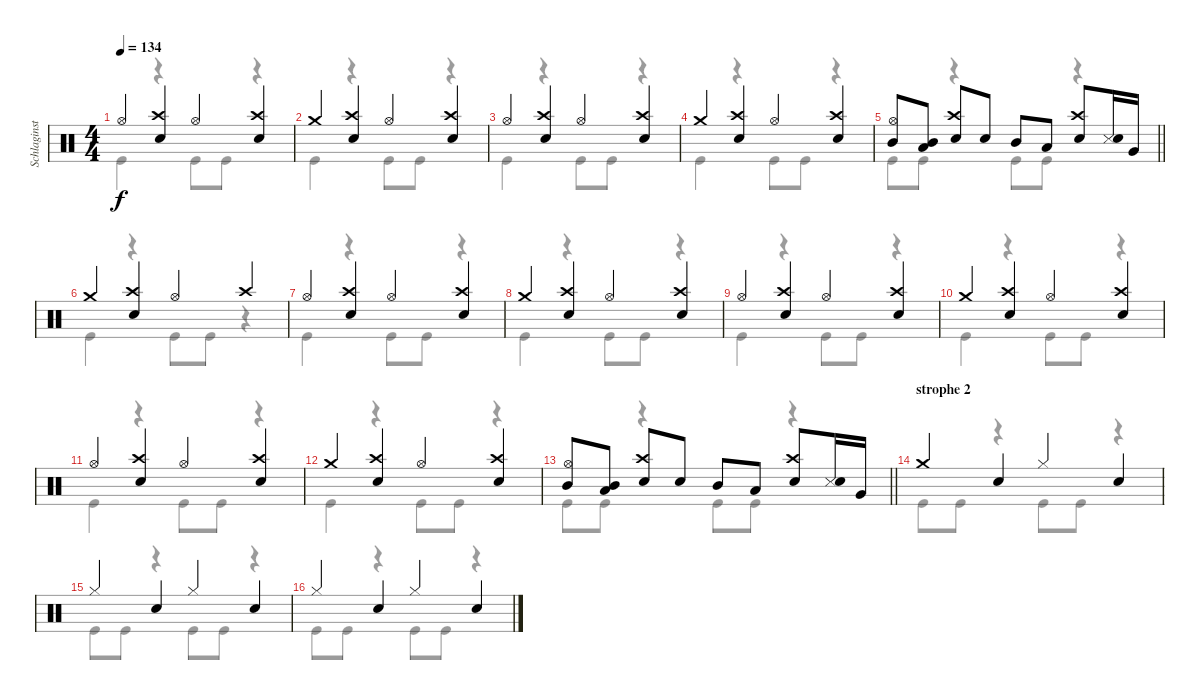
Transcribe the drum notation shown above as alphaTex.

\track ("Schlaginstrumente - Auswahl" "Schlaginst") {instrument percussion}
\staff {score}
\articulation defaults
\voice
\ts (4 4)
\tempo 134
\clef neutral
\ks c "Hi-Hat (open)".4{dy f}
("Crash high (hit)" "Snare (hit) 2").4 "Hi-Hat (open)".4 ("Snare (hit) 2" "Crash high (hit)").4 |
"Crash medium (hit)".4 ("Crash high (hit)" "Snare (hit) 2").4 "Hi-Hat (open)".4 ("Crash high (hit)" "Snare (hit) 2").4 |
"Hi-Hat (open)".4 ("Crash high (hit)" "Snare (hit) 2").4 "Hi-Hat (open)".4 ("Snare (hit) 2" "Crash high (hit)").4 |
"Crash medium (hit)".4 ("Crash high (hit)" "Snare (hit) 2").4 "Hi-Hat (open)".4 ("Crash high (hit)" "Snare (hit) 2").4 |
\barLineRight lightlight
("Mid Tom (hit)" "Hi-Hat (open)").8 ("Low Tom (hit)" "Mid Tom (hit)").8 ("Snare (hit) 2" "Crash high (hit)").8 "Snare (hit) 2".8 "Mid Tom (hit)".8 "Low Tom (hit)".8 ("Snare (hit) 2" "Crash high (hit)").8 ("Snare (side stick) 3" "Snare (hit) 2").16 "Very Low Tom (hit)".16 |
"Crash medium (hit)".4 ("Crash high (hit)" "Snare (hit) 2").4 "Hi-Hat (open)".4 "Crash high (hit)".4 |
"Hi-Hat (open)".4 ("Crash high (hit)" "Snare (hit) 2").4 "Hi-Hat (open)".4 ("Snare (hit) 2" "Crash high (hit)").4 |
"Crash medium (hit)".4 ("Crash high (hit)" "Snare (hit) 2").4 "Hi-Hat (open)".4 ("Crash high (hit)" "Snare (hit) 2").4 |
"Hi-Hat (open)".4 ("Crash high (hit)" "Snare (hit) 2").4 "Hi-Hat (open)".4 ("Snare (hit) 2" "Crash high (hit)").4 |
"Crash medium (hit)".4 ("Crash high (hit)" "Snare (hit) 2").4 "Hi-Hat (open)".4 ("Crash high (hit)" "Snare (hit) 2").4 |
"Hi-Hat (open)".4 ("Crash high (hit)" "Snare (hit) 2").4 "Hi-Hat (open)".4 ("Snare (hit) 2" "Crash high (hit)").4 |
"Crash medium (hit)".4 ("Crash high (hit)" "Snare (hit) 2").4 "Hi-Hat (open)".4 ("Crash high (hit)" "Snare (hit) 2").4 |
\barLineRight lightlight
("Mid Tom (hit)" "Hi-Hat (open)").8 ("Low Tom (hit)" "Mid Tom (hit)").8 ("Snare (hit) 2" "Crash high (hit)").8 "Snare (hit) 2".8 "Mid Tom (hit)".8 "Low Tom (hit)".8 ("Snare (hit) 2" "Crash high (hit)").8 ("Snare (side stick) 3" "Snare (hit) 2").16 "Very Low Tom (hit)".16 |
\section ("" "strophe 2")
"Crash medium (hit)".4 "Snare (hit) 2".4 "Hi-Hat (closed)".4 "Snare (hit) 2".4 |
"Hi-Hat (closed)".4 "Snare (hit) 2".4 "Hi-Hat (closed)".4 "Snare (hit) 2".4 |
"Hi-Hat (closed)".4 "Snare (hit) 2".4 "Hi-Hat (closed)".4 "Snare (hit) 2".4
\voice
\clef neutral
\ottava regular
\simile none
\ks c "Kick (hit)".4{dy f}
r.4 "Kick (hit)".8 "Kick (hit)".8 r.4 |
"Kick (hit)".4 r.4 "Kick (hit)".8 "Kick (hit)".8 r.4 |
"Kick (hit)".4 r.4 "Kick (hit)".8 "Kick (hit)".8 r.4 |
"Kick (hit)".4 r.4 "Kick (hit)".8 "Kick (hit)".8 r.4 |
\barLineRight lightlight "Kick (hit)".8 "Kick (hit)".8
r.4 "Kick (hit)".8 "Kick (hit)".8 r.4 |
"Kick (hit)".4 r.4 "Kick (hit)".8 "Kick (hit)".8 r.4 |
"Kick (hit)".4 r.4 "Kick (hit)".8 "Kick (hit)".8 r.4 |
"Kick (hit)".4 r.4 "Kick (hit)".8 "Kick (hit)".8 r.4 |
"Kick (hit)".4 r.4 "Kick (hit)".8 "Kick (hit)".8 r.4 |
"Kick (hit)".4 r.4 "Kick (hit)".8 "Kick (hit)".8 r.4 |
"Kick (hit)".4 r.4 "Kick (hit)".8 "Kick (hit)".8 r.4 |
"Kick (hit)".4 r.4 "Kick (hit)".8 "Kick (hit)".8 r.4 |
\barLineRight lightlight "Kick (hit)".8 "Kick (hit)".8
r.4 "Kick (hit)".8 "Kick (hit)".8 r.4 |
"Kick (hit)".8 "Kick (hit)".8 r.4 "Kick (hit)".8 "Kick (hit)".8 r.4 |
"Kick (hit)".8 "Kick (hit)".8 r.4 "Kick (hit)".8 "Kick (hit)".8 r.4 |
"Kick (hit)".8 "Kick (hit)".8 r.4 "Kick (hit)".8 "Kick (hit)".8 r.4
